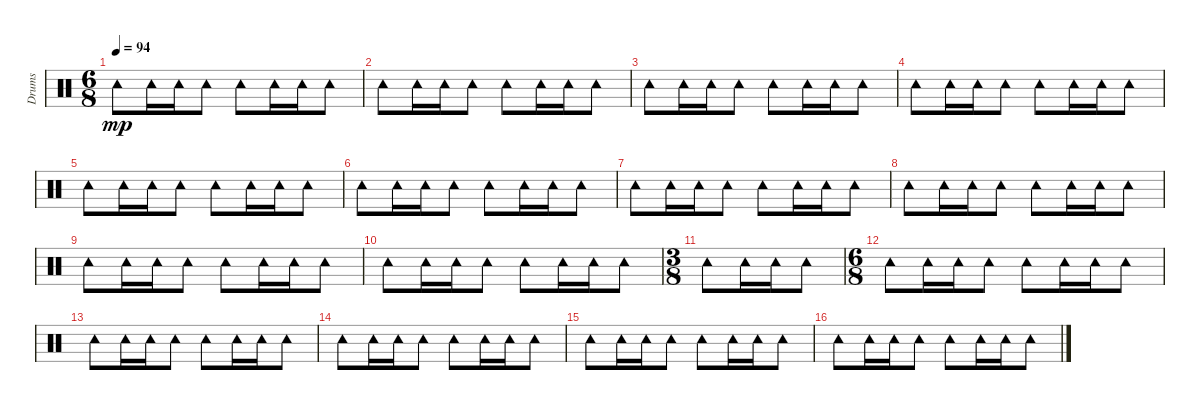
\track ("Drums" "Drums") {instrument percussion}
\staff {score}
\articulation defaults
\ts (6 8)
\tempo 94
\clef neutral
\ks c "Tambourine (hit)".8{dy mp} "Tambourine (hit)".16 "Tambourine (hit)".16 "Tambourine (hit)".8 "Tambourine (hit)".8 "Tambourine (hit)".16 "Tambourine (hit)".16 "Tambourine (hit)".8
|
"Tambourine (hit)".8 "Tambourine (hit)".16 "Tambourine (hit)".16 "Tambourine (hit)".8 "Tambourine (hit)".8 "Tambourine (hit)".16 "Tambourine (hit)".16 "Tambourine (hit)".8 |
"Tambourine (hit)".8 "Tambourine (hit)".16 "Tambourine (hit)".16 "Tambourine (hit)".8 "Tambourine (hit)".8 "Tambourine (hit)".16 "Tambourine (hit)".16 "Tambourine (hit)".8 |
"Tambourine (hit)".8 "Tambourine (hit)".16 "Tambourine (hit)".16 "Tambourine (hit)".8 "Tambourine (hit)".8 "Tambourine (hit)".16 "Tambourine (hit)".16 "Tambourine (hit)".8 |
"Tambourine (hit)".8 "Tambourine (hit)".16 "Tambourine (hit)".16 "Tambourine (hit)".8 "Tambourine (hit)".8 "Tambourine (hit)".16 "Tambourine (hit)".16 "Tambourine (hit)".8 |
"Tambourine (hit)".8 "Tambourine (hit)".16 "Tambourine (hit)".16 "Tambourine (hit)".8 "Tambourine (hit)".8 "Tambourine (hit)".16 "Tambourine (hit)".16 "Tambourine (hit)".8 |
"Tambourine (hit)".8 "Tambourine (hit)".16 "Tambourine (hit)".16 "Tambourine (hit)".8 "Tambourine (hit)".8 "Tambourine (hit)".16 "Tambourine (hit)".16 "Tambourine (hit)".8 |
"Tambourine (hit)".8 "Tambourine (hit)".16 "Tambourine (hit)".16 "Tambourine (hit)".8 "Tambourine (hit)".8 "Tambourine (hit)".16 "Tambourine (hit)".16 "Tambourine (hit)".8 |
"Tambourine (hit)".8 "Tambourine (hit)".16 "Tambourine (hit)".16 "Tambourine (hit)".8 "Tambourine (hit)".8 "Tambourine (hit)".16 "Tambourine (hit)".16 "Tambourine (hit)".8 |
"Tambourine (hit)".8 "Tambourine (hit)".16 "Tambourine (hit)".16 "Tambourine (hit)".8 "Tambourine (hit)".8 "Tambourine (hit)".16 "Tambourine (hit)".16 "Tambourine (hit)".8 |
\ts (3 8)
"Tambourine (hit)".8 "Tambourine (hit)".16 "Tambourine (hit)".16 "Tambourine (hit)".8 |
\ts (6 8)
"Tambourine (hit)".8 "Tambourine (hit)".16 "Tambourine (hit)".16 "Tambourine (hit)".8 "Tambourine (hit)".8 "Tambourine (hit)".16 "Tambourine (hit)".16 "Tambourine (hit)".8 |
"Tambourine (hit)".8 "Tambourine (hit)".16 "Tambourine (hit)".16 "Tambourine (hit)".8 "Tambourine (hit)".8 "Tambourine (hit)".16 "Tambourine (hit)".16 "Tambourine (hit)".8 |
"Tambourine (hit)".8 "Tambourine (hit)".16 "Tambourine (hit)".16 "Tambourine (hit)".8 "Tambourine (hit)".8 "Tambourine (hit)".16 "Tambourine (hit)".16 "Tambourine (hit)".8 |
"Tambourine (hit)".8 "Tambourine (hit)".16 "Tambourine (hit)".16 "Tambourine (hit)".8 "Tambourine (hit)".8 "Tambourine (hit)".16 "Tambourine (hit)".16 "Tambourine (hit)".8 |
"Tambourine (hit)".8 "Tambourine (hit)".16 "Tambourine (hit)".16 "Tambourine (hit)".8 "Tambourine (hit)".8 "Tambourine (hit)".16 "Tambourine (hit)".16 "Tambourine (hit)".8
